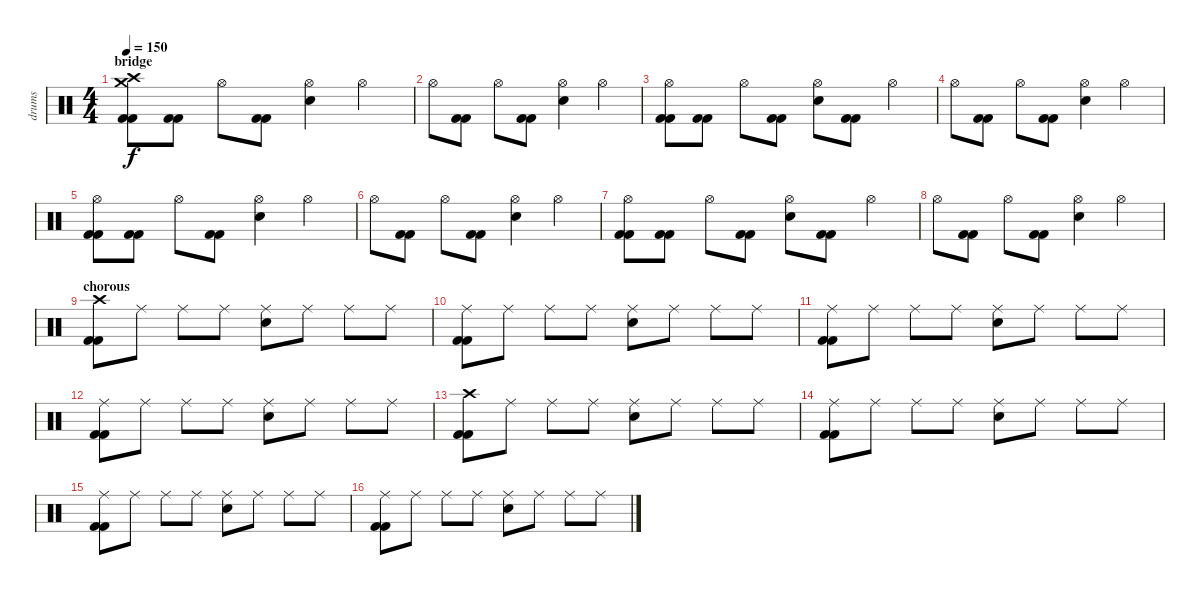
\track ("drums" "drums") {instrument percussion}
\staff {score}
\articulation defaults
\ts (4 4)
\section ("" "bridge")
\tempo 150
\clef neutral
\ks c
("Crash high (hit)" "Crash medium (hit)" "Kick (hit) 2" "Kick (hit) 2").8{dy f} ("Kick (hit) 2" "Kick (hit) 2").8 "Hi-Hat (open)".8 ("Kick (hit) 2" "Kick (hit) 2").8 ("Hi-Hat (open)" "Electric Snare (hit)").4 "Hi-Hat (open)".4 |
"Hi-Hat (open)".8 ("Kick (hit) 2" "Kick (hit) 2").8 "Hi-Hat (open)".8 ("Kick (hit) 2" "Kick (hit) 2").8 ("Hi-Hat (open)" "Electric Snare (hit)").4 "Hi-Hat (open)".4 |
("Hi-Hat (open)" "Kick (hit) 2" "Kick (hit) 2").8 ("Kick (hit) 2" "Kick (hit) 2").8 "Hi-Hat (open)".8 ("Kick (hit) 2" "Kick (hit) 2").8 ("Hi-Hat (open)" "Electric Snare (hit)").8 ("Kick (hit) 2" "Kick (hit) 2").8 "Hi-Hat (open)".4 |
"Hi-Hat (open)".8 ("Kick (hit) 2" "Kick (hit) 2").8 "Hi-Hat (open)".8 ("Kick (hit) 2" "Kick (hit) 2").8 ("Hi-Hat (open)" "Electric Snare (hit)").4 "Hi-Hat (open)".4 |
("Hi-Hat (open)" "Kick (hit) 2" "Kick (hit) 2").8 ("Kick (hit) 2" "Kick (hit) 2").8 "Hi-Hat (open)".8 ("Kick (hit) 2" "Kick (hit) 2").8 ("Hi-Hat (open)" "Electric Snare (hit)").4 "Hi-Hat (open)".4 |
"Hi-Hat (open)".8 ("Kick (hit) 2" "Kick (hit) 2").8 "Hi-Hat (open)".8 ("Kick (hit) 2" "Kick (hit) 2").8 ("Hi-Hat (open)" "Electric Snare (hit)").4 "Hi-Hat (open)".4 |
("Hi-Hat (open)" "Kick (hit) 2" "Kick (hit) 2").8 ("Kick (hit) 2" "Kick (hit) 2").8 "Hi-Hat (open)".8 ("Kick (hit) 2" "Kick (hit) 2").8 ("Hi-Hat (open)" "Electric Snare (hit)").8 ("Kick (hit) 2" "Kick (hit) 2").8 "Hi-Hat (open)".4 |
"Hi-Hat (open)".8 ("Kick (hit) 2" "Kick (hit) 2").8 "Hi-Hat (open)".8 ("Kick (hit) 2" "Kick (hit) 2").8 ("Hi-Hat (open)" "Electric Snare (hit)").4 "Hi-Hat (open)".4 |
\section ("" "chorous")
("Crash high (hit)" "Kick (hit) 2" "Kick (hit) 2").8 "Ride (middle)".8 "Ride (middle)".8 "Ride (middle)".8 ("Ride (middle)" "Electric Snare (hit)").8 "Ride (middle)".8 "Ride (middle)".8 "Ride (middle)".8 |
("Ride (middle)" "Kick (hit) 2" "Kick (hit) 2").8 "Ride (middle)".8 "Ride (middle)".8 "Ride (middle)".8 ("Ride (middle)" "Electric Snare (hit)").8 "Ride (middle)".8 "Ride (middle)".8 "Ride (middle)".8 |
("Ride (middle)" "Kick (hit) 2" "Kick (hit) 2").8 "Ride (middle)".8 "Ride (middle)".8 "Ride (middle)".8 ("Ride (middle)" "Electric Snare (hit)").8 "Ride (middle)".8 "Ride (middle)".8 "Ride (middle)".8 |
("Ride (middle)" "Kick (hit) 2" "Kick (hit) 2").8 "Ride (middle)".8 "Ride (middle)".8 "Ride (middle)".8 ("Ride (middle)" "Electric Snare (hit)").8 "Ride (middle)".8 "Ride (middle)".8 "Ride (middle)".8 |
("Crash high (hit)" "Kick (hit) 2" "Kick (hit) 2").8 "Ride (middle)".8 "Ride (middle)".8 "Ride (middle)".8 ("Ride (middle)" "Electric Snare (hit)").8 "Ride (middle)".8 "Ride (middle)".8 "Ride (middle)".8 |
("Ride (middle)" "Kick (hit) 2" "Kick (hit) 2").8 "Ride (middle)".8 "Ride (middle)".8 "Ride (middle)".8 ("Ride (middle)" "Electric Snare (hit)").8 "Ride (middle)".8 "Ride (middle)".8 "Ride (middle)".8 |
("Ride (middle)" "Kick (hit) 2" "Kick (hit) 2").8 "Ride (middle)".8 "Ride (middle)".8 "Ride (middle)".8 ("Ride (middle)" "Electric Snare (hit)").8 "Ride (middle)".8 "Ride (middle)".8 "Ride (middle)".8 |
("Ride (middle)" "Kick (hit) 2" "Kick (hit) 2").8 "Ride (middle)".8 "Ride (middle)".8 "Ride (middle)".8 ("Ride (middle)" "Electric Snare (hit)").8 "Ride (middle)".8 "Ride (middle)".8 "Ride (middle)".8
